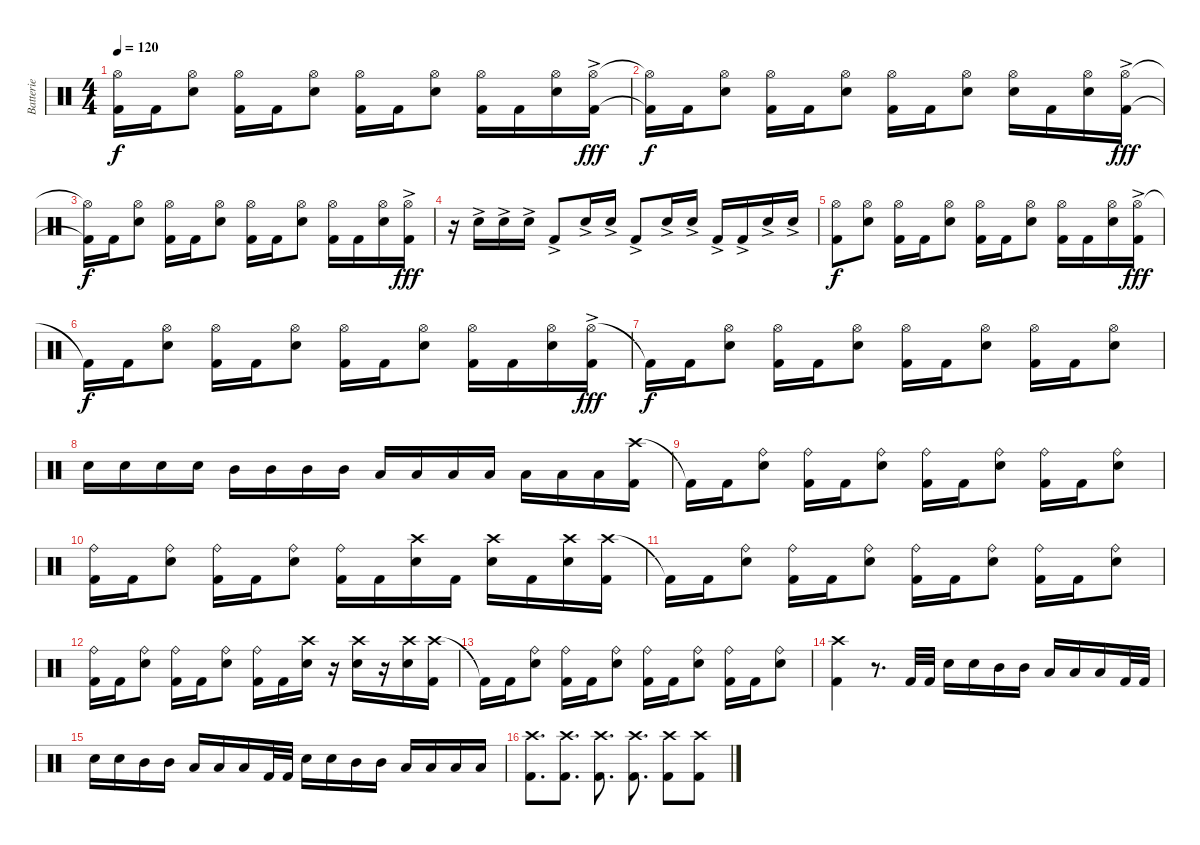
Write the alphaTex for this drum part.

\track ("Batterie" "Batterie") {instrument percussion}
\staff {score}
\articulation defaults
\ts (4 4)
\tempo 120
\clef neutral
\ks c
("Hi-Hat (open)" "Kick (hit) 2").16{dy f} "Kick (hit) 2".16 ("Hi-Hat (open)" "Electric Snare (hit)").8 ("Hi-Hat (open)" "Kick (hit) 2").16 "Kick (hit) 2".16 ("Hi-Hat (open)" "Electric Snare (hit)").8 ("Hi-Hat (open)" "Kick (hit) 2").16 "Kick (hit) 2".16 ("Hi-Hat (open)" "Electric Snare (hit)").8 ("Hi-Hat (open)" "Kick (hit) 2").16 "Kick (hit) 2".16 ("Hi-Hat (open)" "Electric Snare (hit)").16 ("Hi-Hat (open)"{ac} "Kick (hit) 2").16{dy fff} |
("Hi-Hat (open)"{t} "Kick (hit) 2"{t}).16{dy f} "Kick (hit) 2".16 ("Hi-Hat (open)" "Electric Snare (hit)").8 ("Hi-Hat (open)" "Kick (hit) 2").16 "Kick (hit) 2".16 ("Hi-Hat (open)" "Electric Snare (hit)").8 ("Hi-Hat (open)" "Kick (hit) 2").16 "Kick (hit) 2".16 ("Hi-Hat (open)" "Electric Snare (hit)").8 ("Hi-Hat (open)" "Electric Snare (hit)").16 "Kick (hit) 2".16 ("Hi-Hat (open)" "Electric Snare (hit)").16 ("Hi-Hat (open)"{ac} "Kick (hit) 2").16{dy fff} |
("Hi-Hat (open)"{t} "Kick (hit) 2"{t}).16{dy f} "Kick (hit) 2".16 ("Hi-Hat (open)" "Electric Snare (hit)").8 ("Hi-Hat (open)" "Kick (hit) 2").16 "Kick (hit) 2".16 ("Hi-Hat (open)" "Electric Snare (hit)").8 ("Hi-Hat (open)" "Kick (hit) 2").16 "Kick (hit) 2".16 ("Hi-Hat (open)" "Electric Snare (hit)").8 ("Hi-Hat (open)" "Kick (hit) 2").16 "Kick (hit) 2".16 ("Hi-Hat (open)" "Electric Snare (hit)").16 ("Hi-Hat (open)"{ac} "Kick (hit) 2").16{dy fff} |
r.16 "Electric Snare (hit)"{ac}.16 "Electric Snare (hit)"{ac}.16 "Electric Snare (hit)"{ac}.16 "Kick (hit) 2"{ac}.8 "Electric Snare (hit)"{ac}.16 "Electric Snare (hit)"{ac}.16 "Kick (hit) 2"{ac}.8 "Electric Snare (hit)"{ac}.16 "Electric Snare (hit)"{ac}.16 "Kick (hit) 2"{ac}.16 "Kick (hit) 2"{ac}.16 "Electric Snare (hit)"{ac}.16 "Electric Snare (hit)"{ac}.16 |
("Hi-Hat (open)" "Kick (hit) 2").8{dy f} ("Hi-Hat (open)" "Electric Snare (hit)").8 ("Hi-Hat (open)" "Kick (hit) 2").16 "Kick (hit) 2".16 ("Hi-Hat (open)" "Electric Snare (hit)").8 ("Hi-Hat (open)" "Kick (hit) 2").16 "Kick (hit) 2".16 ("Hi-Hat (open)" "Electric Snare (hit)").8 ("Hi-Hat (open)" "Kick (hit) 2").16 "Kick (hit) 2".16 ("Hi-Hat (open)" "Electric Snare (hit)").16 ("Hi-Hat (open)"{ac} "Kick (hit) 2").16{dy fff} |
"Kick (hit) 2"{t}.16{dy f} "Kick (hit) 2".16 ("Hi-Hat (open)" "Electric Snare (hit)").8 ("Hi-Hat (open)" "Kick (hit) 2").16 "Kick (hit) 2".16 ("Hi-Hat (open)" "Electric Snare (hit)").8 ("Hi-Hat (open)" "Kick (hit) 2").16 "Kick (hit) 2".16 ("Hi-Hat (open)" "Electric Snare (hit)").8 ("Hi-Hat (open)" "Kick (hit) 2").16 "Kick (hit) 2".16 ("Hi-Hat (open)" "Electric Snare (hit)").16 ("Hi-Hat (open)"{ac} "Kick (hit) 2").16{dy fff} |
"Kick (hit) 2"{t}.16{dy f} "Kick (hit) 2".16 ("Hi-Hat (open)" "Electric Snare (hit)").8 ("Hi-Hat (open)" "Kick (hit) 2").16 "Kick (hit) 2".16 ("Hi-Hat (open)" "Electric Snare (hit)").8 ("Hi-Hat (open)" "Kick (hit) 2").16 "Kick (hit) 2".16 ("Hi-Hat (open)" "Electric Snare (hit)").8 ("Hi-Hat (open)" "Kick (hit) 2").16 "Kick (hit) 2".16 ("Hi-Hat (open)" "Electric Snare (hit)").8 |
"Electric Snare (hit)".16 "Electric Snare (hit)".16 "Electric Snare (hit)".16 "Electric Snare (hit)".16 "Mid Tom (hit)".16 "Mid Tom (hit)".16 "Mid Tom (hit)".16 "Mid Tom (hit)".16 "Low Tom (hit)".16 "Low Tom (hit)".16 "Low Tom (hit)".16 "Low Tom (hit)".16 "Low Floor Tom (hit)".16 "Low Floor Tom (hit)".16 "Low Floor Tom (hit)".16 ("Crash high (hit)" "Kick (hit) 2").16 |
"Kick (hit) 2"{t}.16 "Kick (hit) 2".16 ("Ride (bell)" "Electric Snare (hit)").8 ("Ride (bell)" "Kick (hit) 2").16 "Kick (hit) 2".16 ("Ride (bell)" "Electric Snare (hit)").8 ("Ride (bell)" "Kick (hit) 2").16 "Kick (hit) 2".16 ("Ride (bell)" "Electric Snare (hit)").8 ("Ride (bell)" "Kick (hit) 2").16 "Kick (hit) 2".16 ("Ride (bell)" "Electric Snare (hit)").8 |
("Ride (bell)" "Kick (hit) 2").16 "Kick (hit) 2".16 ("Ride (bell)" "Electric Snare (hit)").8 ("Ride (bell)" "Kick (hit) 2").16 "Kick (hit) 2".16 ("Ride (bell)" "Electric Snare (hit)").8 ("Ride (bell)" "Kick (hit) 2").16 "Kick (hit) 2".16 ("Crash high (hit)" "Electric Snare (hit)").16 "Kick (hit) 2".16 ("Crash high (hit)" "Electric Snare (hit)").16 "Kick (hit) 2".16 ("Crash high (hit)" "Electric Snare (hit)").16 ("Crash high (hit)" "Kick (hit) 2").16 |
"Kick (hit) 2"{t}.16 "Kick (hit) 2".16 ("Ride (bell)" "Electric Snare (hit)").8 ("Ride (bell)" "Kick (hit) 2").16 "Kick (hit) 2".16 ("Ride (bell)" "Electric Snare (hit)").8 ("Ride (bell)" "Kick (hit) 2").16 "Kick (hit) 2".16 ("Ride (bell)" "Electric Snare (hit)").8 ("Ride (bell)" "Kick (hit) 2").16 "Kick (hit) 2".16 ("Ride (bell)" "Electric Snare (hit)").8 |
("Ride (bell)" "Kick (hit) 2").16 "Kick (hit) 2".16 ("Ride (bell)" "Electric Snare (hit)").8 ("Ride (bell)" "Kick (hit) 2").16 "Kick (hit) 2".16 ("Ride (bell)" "Electric Snare (hit)").8 ("Ride (bell)" "Kick (hit) 2").16 "Kick (hit) 2".16 ("Crash high (hit)" "Electric Snare (hit)").16 r.16 ("Crash high (hit)" "Electric Snare (hit)").16 r.16 ("Crash high (hit)" "Electric Snare (hit)").16 ("Crash high (hit)" "Kick (hit) 2").16 |
"Kick (hit) 2"{t}.16 "Kick (hit) 2".16 ("Ride (bell)" "Electric Snare (hit)").8 ("Ride (bell)" "Kick (hit) 2").16 "Kick (hit) 2".16 ("Ride (bell)" "Electric Snare (hit)").8 ("Ride (bell)" "Kick (hit) 2").16 "Kick (hit) 2".16 ("Ride (bell)" "Electric Snare (hit)").8 ("Ride (bell)" "Kick (hit) 2").16 "Kick (hit) 2".16 ("Ride (bell)" "Electric Snare (hit)").8 |
("Crash high (hit)" "Kick (hit) 2").4 r.8{d} "Kick (hit) 2".32 "Kick (hit) 2".32 "Electric Snare (hit)".16 "Electric Snare (hit)".16 "Mid Tom (hit)".16 "Mid Tom (hit)".16 "Low Tom (hit)".16 "Low Tom (hit)".16 "Low Floor Tom (hit)".16 "Kick (hit) 2".32 "Kick (hit) 2".32 |
"Electric Snare (hit)".16 "Electric Snare (hit)".16 "Mid Tom (hit)".16 "Mid Tom (hit)".16 "Low Tom (hit)".16 "Low Tom (hit)".16 "Low Floor Tom (hit)".16 "Kick (hit) 2".32 "Kick (hit) 2".32 "Electric Snare (hit)".16 "Electric Snare (hit)".16 "Mid Tom (hit)".16 "Mid Tom (hit)".16 "Low Tom (hit)".16 "Low Tom (hit)".16 "Low Floor Tom (hit)".16 "Low Floor Tom (hit)".16 |
("Crash high (hit)" "Kick (hit) 2").8{d} ("Crash high (hit)" "Kick (hit) 2").8{d} ("Crash high (hit)" "Kick (hit) 2").8{d} ("Crash high (hit)" "Kick (hit) 2").8{d} ("Crash high (hit)" "Kick (hit) 2").8 ("Crash high (hit)" "Kick (hit) 2").8
